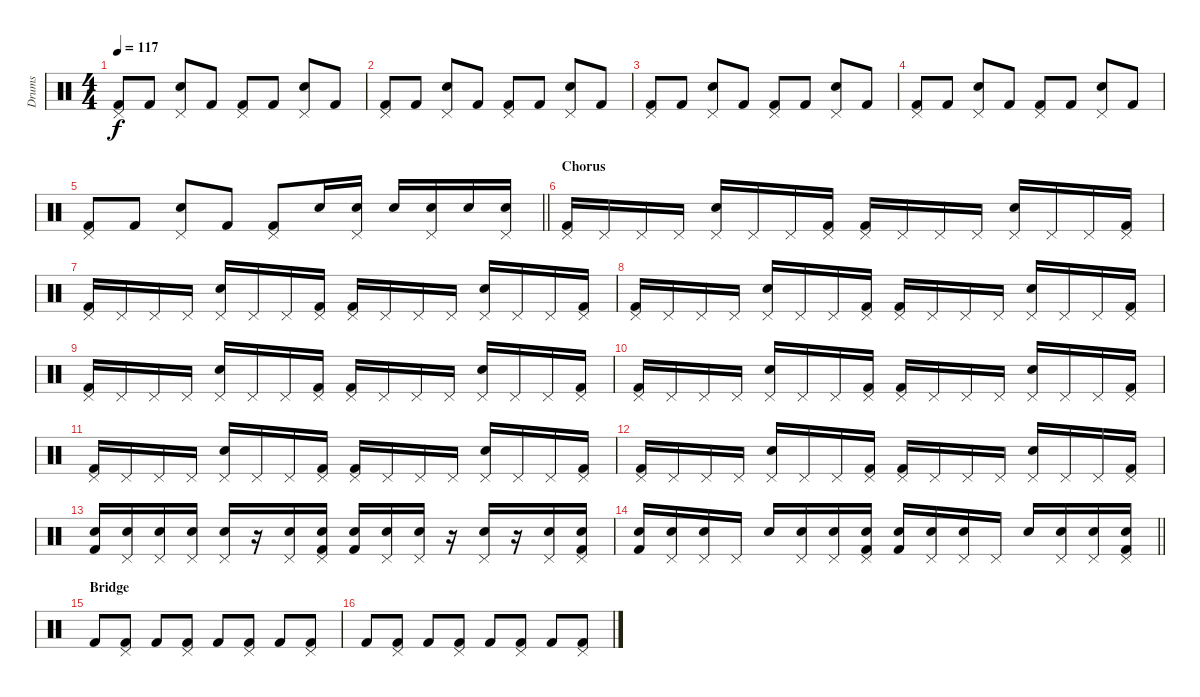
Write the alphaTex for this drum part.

\track ("Drums" "Drums") {instrument percussion}
\staff {score}
\articulation defaults
\ts (4 4)
\tempo 117
\clef neutral
\ks c
("Kick (hit) 2" "Pedal Hi-Hat (hit)").8{dy f} "Kick (hit) 2".8 ("Snare (hit) 2" "Pedal Hi-Hat (hit)").8 "Kick (hit) 2".8 ("Kick (hit) 2" "Pedal Hi-Hat (hit)").8 "Kick (hit) 2".8 ("Snare (hit) 2" "Pedal Hi-Hat (hit)").8 "Kick (hit) 2".8 |
("Kick (hit) 2" "Pedal Hi-Hat (hit)").8 "Kick (hit) 2".8 ("Snare (hit) 2" "Pedal Hi-Hat (hit)").8 "Kick (hit) 2".8 ("Kick (hit) 2" "Pedal Hi-Hat (hit)").8 "Kick (hit) 2".8 ("Snare (hit) 2" "Pedal Hi-Hat (hit)").8 "Kick (hit) 2".8 |
("Kick (hit) 2" "Pedal Hi-Hat (hit)").8 "Kick (hit) 2".8 ("Snare (hit) 2" "Pedal Hi-Hat (hit)").8 "Kick (hit) 2".8 ("Kick (hit) 2" "Pedal Hi-Hat (hit)").8 "Kick (hit) 2".8 ("Snare (hit) 2" "Pedal Hi-Hat (hit)").8 "Kick (hit) 2".8 |
("Kick (hit) 2" "Pedal Hi-Hat (hit)").8 "Kick (hit) 2".8 ("Snare (hit) 2" "Pedal Hi-Hat (hit)").8 "Kick (hit) 2".8 ("Kick (hit) 2" "Pedal Hi-Hat (hit)").8 "Kick (hit) 2".8 ("Snare (hit) 2" "Pedal Hi-Hat (hit)").8 "Kick (hit) 2".8 |
\barLineRight lightlight
("Kick (hit) 2" "Pedal Hi-Hat (hit)").8 "Kick (hit) 2".8 ("Snare (hit) 2" "Pedal Hi-Hat (hit)").8 "Kick (hit) 2".8 ("Kick (hit) 2" "Pedal Hi-Hat (hit)").8 "Snare (hit) 2".16 ("Snare (hit) 2" "Pedal Hi-Hat (hit)").16 "Snare (hit) 2".16 ("Snare (hit) 2" "Pedal Hi-Hat (hit)").16 "Snare (hit) 2".16 ("Snare (hit) 2" "Pedal Hi-Hat (hit)").16 |
\section ("" "Chorus")
("Kick (hit) 2" "Pedal Hi-Hat (hit)").16 "Pedal Hi-Hat (hit)".16 "Pedal Hi-Hat (hit)".16 "Pedal Hi-Hat (hit)".16 ("Snare (hit) 2" "Pedal Hi-Hat (hit)").16 "Pedal Hi-Hat (hit)".16 "Pedal Hi-Hat (hit)".16 ("Kick (hit) 2" "Pedal Hi-Hat (hit)").16 ("Kick (hit) 2" "Pedal Hi-Hat (hit)").16 "Pedal Hi-Hat (hit)".16 "Pedal Hi-Hat (hit)".16 "Pedal Hi-Hat (hit)".16 ("Snare (hit) 2" "Pedal Hi-Hat (hit)").16 "Pedal Hi-Hat (hit)".16 "Pedal Hi-Hat (hit)".16 ("Kick (hit) 2" "Pedal Hi-Hat (hit)").16 |
("Kick (hit) 2" "Pedal Hi-Hat (hit)").16 "Pedal Hi-Hat (hit)".16 "Pedal Hi-Hat (hit)".16 "Pedal Hi-Hat (hit)".16 ("Snare (hit) 2" "Pedal Hi-Hat (hit)").16 "Pedal Hi-Hat (hit)".16 "Pedal Hi-Hat (hit)".16 ("Kick (hit) 2" "Pedal Hi-Hat (hit)").16 ("Kick (hit) 2" "Pedal Hi-Hat (hit)").16 "Pedal Hi-Hat (hit)".16 "Pedal Hi-Hat (hit)".16 "Pedal Hi-Hat (hit)".16 ("Snare (hit) 2" "Pedal Hi-Hat (hit)").16 "Pedal Hi-Hat (hit)".16 "Pedal Hi-Hat (hit)".16 ("Kick (hit) 2" "Pedal Hi-Hat (hit)").16 |
("Kick (hit) 2" "Pedal Hi-Hat (hit)").16 "Pedal Hi-Hat (hit)".16 "Pedal Hi-Hat (hit)".16 "Pedal Hi-Hat (hit)".16 ("Snare (hit) 2" "Pedal Hi-Hat (hit)").16 "Pedal Hi-Hat (hit)".16 "Pedal Hi-Hat (hit)".16 ("Kick (hit) 2" "Pedal Hi-Hat (hit)").16 ("Kick (hit) 2" "Pedal Hi-Hat (hit)").16 "Pedal Hi-Hat (hit)".16 "Pedal Hi-Hat (hit)".16 "Pedal Hi-Hat (hit)".16 ("Snare (hit) 2" "Pedal Hi-Hat (hit)").16 "Pedal Hi-Hat (hit)".16 "Pedal Hi-Hat (hit)".16 ("Kick (hit) 2" "Pedal Hi-Hat (hit)").16 |
("Kick (hit) 2" "Pedal Hi-Hat (hit)").16 "Pedal Hi-Hat (hit)".16 "Pedal Hi-Hat (hit)".16 "Pedal Hi-Hat (hit)".16 ("Snare (hit) 2" "Pedal Hi-Hat (hit)").16 "Pedal Hi-Hat (hit)".16 "Pedal Hi-Hat (hit)".16 ("Kick (hit) 2" "Pedal Hi-Hat (hit)").16 ("Kick (hit) 2" "Pedal Hi-Hat (hit)").16 "Pedal Hi-Hat (hit)".16 "Pedal Hi-Hat (hit)".16 "Pedal Hi-Hat (hit)".16 ("Snare (hit) 2" "Pedal Hi-Hat (hit)").16 "Pedal Hi-Hat (hit)".16 "Pedal Hi-Hat (hit)".16 ("Kick (hit) 2" "Pedal Hi-Hat (hit)").16 |
("Kick (hit) 2" "Pedal Hi-Hat (hit)").16 "Pedal Hi-Hat (hit)".16 "Pedal Hi-Hat (hit)".16 "Pedal Hi-Hat (hit)".16 ("Snare (hit) 2" "Pedal Hi-Hat (hit)").16 "Pedal Hi-Hat (hit)".16 "Pedal Hi-Hat (hit)".16 ("Kick (hit) 2" "Pedal Hi-Hat (hit)").16 ("Kick (hit) 2" "Pedal Hi-Hat (hit)").16 "Pedal Hi-Hat (hit)".16 "Pedal Hi-Hat (hit)".16 "Pedal Hi-Hat (hit)".16 ("Snare (hit) 2" "Pedal Hi-Hat (hit)").16 "Pedal Hi-Hat (hit)".16 "Pedal Hi-Hat (hit)".16 ("Kick (hit) 2" "Pedal Hi-Hat (hit)").16 |
("Kick (hit) 2" "Pedal Hi-Hat (hit)").16 "Pedal Hi-Hat (hit)".16 "Pedal Hi-Hat (hit)".16 "Pedal Hi-Hat (hit)".16 ("Snare (hit) 2" "Pedal Hi-Hat (hit)").16 "Pedal Hi-Hat (hit)".16 "Pedal Hi-Hat (hit)".16 ("Kick (hit) 2" "Pedal Hi-Hat (hit)").16 ("Kick (hit) 2" "Pedal Hi-Hat (hit)").16 "Pedal Hi-Hat (hit)".16 "Pedal Hi-Hat (hit)".16 "Pedal Hi-Hat (hit)".16 ("Snare (hit) 2" "Pedal Hi-Hat (hit)").16 "Pedal Hi-Hat (hit)".16 "Pedal Hi-Hat (hit)".16 ("Kick (hit) 2" "Pedal Hi-Hat (hit)").16 |
("Kick (hit) 2" "Pedal Hi-Hat (hit)").16 "Pedal Hi-Hat (hit)".16 "Pedal Hi-Hat (hit)".16 "Pedal Hi-Hat (hit)".16 ("Snare (hit) 2" "Pedal Hi-Hat (hit)").16 "Pedal Hi-Hat (hit)".16 "Pedal Hi-Hat (hit)".16 ("Kick (hit) 2" "Pedal Hi-Hat (hit)").16 ("Kick (hit) 2" "Pedal Hi-Hat (hit)").16 "Pedal Hi-Hat (hit)".16 "Pedal Hi-Hat (hit)".16 "Pedal Hi-Hat (hit)".16 ("Snare (hit) 2" "Pedal Hi-Hat (hit)").16 "Pedal Hi-Hat (hit)".16 "Pedal Hi-Hat (hit)".16 ("Kick (hit) 2" "Pedal Hi-Hat (hit)").16 |
("Kick (hit) 2" "Snare (hit) 2").16 ("Snare (hit) 2" "Pedal Hi-Hat (hit)").16 ("Snare (hit) 2" "Pedal Hi-Hat (hit)").16 ("Snare (hit) 2" "Pedal Hi-Hat (hit)").16 ("Snare (hit) 2" "Pedal Hi-Hat (hit)").16 r.16 ("Snare (hit) 2" "Pedal Hi-Hat (hit)").16 ("Kick (hit) 2" "Snare (hit) 2" "Pedal Hi-Hat (hit)").16 ("Kick (hit) 2" "Snare (hit) 2").16 ("Snare (hit) 2" "Pedal Hi-Hat (hit)").16 ("Snare (hit) 2" "Pedal Hi-Hat (hit)").16 r.16 ("Snare (hit) 2" "Pedal Hi-Hat (hit)").16 r.16 ("Snare (hit) 2" "Pedal Hi-Hat (hit)").16 ("Kick (hit) 2" "Snare (hit) 2" "Pedal Hi-Hat (hit)").16 |
\barLineRight lightlight
("Kick (hit) 2" "Snare (hit) 2").16 ("Snare (hit) 2" "Pedal Hi-Hat (hit)").16 ("Snare (hit) 2" "Pedal Hi-Hat (hit)").16 "Pedal Hi-Hat (hit)".16 "Snare (hit) 2".16 ("Snare (hit) 2" "Pedal Hi-Hat (hit)").16 ("Snare (hit) 2" "Pedal Hi-Hat (hit)").16 ("Kick (hit) 2" "Snare (hit) 2" "Pedal Hi-Hat (hit)").16 ("Kick (hit) 2" "Snare (hit) 2").16 ("Snare (hit) 2" "Pedal Hi-Hat (hit)").16 ("Snare (hit) 2" "Pedal Hi-Hat (hit)").16 "Pedal Hi-Hat (hit)".16 "Snare (hit) 2".16 ("Snare (hit) 2" "Pedal Hi-Hat (hit)").16 ("Snare (hit) 2" "Pedal Hi-Hat (hit)").16 ("Kick (hit) 2" "Snare (hit) 2" "Pedal Hi-Hat (hit)").16 |
\section ("" "Bridge")
"Kick (hit) 2".8 ("Kick (hit) 2" "Pedal Hi-Hat (hit)").8 "Kick (hit) 2".8 ("Kick (hit) 2" "Pedal Hi-Hat (hit)").8 "Kick (hit) 2".8 ("Kick (hit) 2" "Pedal Hi-Hat (hit)").8 "Kick (hit) 2".8 ("Kick (hit) 2" "Pedal Hi-Hat (hit)").8 |
"Kick (hit) 2".8 ("Kick (hit) 2" "Pedal Hi-Hat (hit)").8 "Kick (hit) 2".8 ("Kick (hit) 2" "Pedal Hi-Hat (hit)").8 "Kick (hit) 2".8 ("Kick (hit) 2" "Pedal Hi-Hat (hit)").8 "Kick (hit) 2".8 ("Kick (hit) 2" "Pedal Hi-Hat (hit)").8
